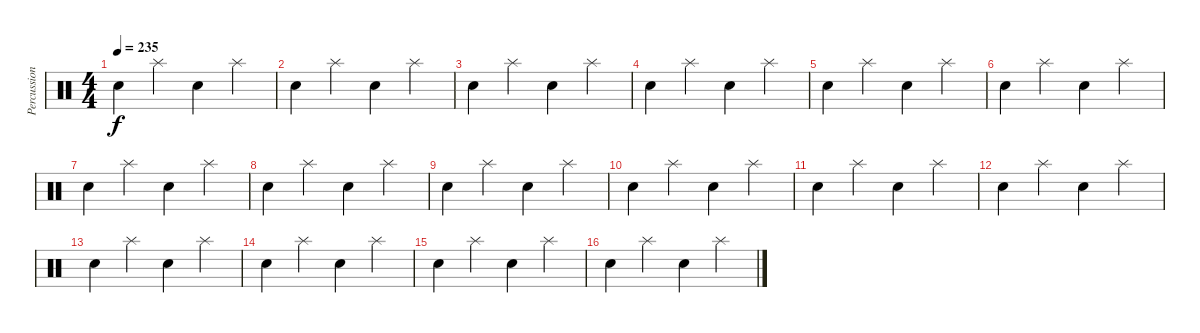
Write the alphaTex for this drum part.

\track ("Percussion" "Percussion") {instrument percussion}
\staff {score}
\articulation defaults
\ts (4 4)
\tempo 235
\clef neutral
\ks c "Snare (hit) 2".4{dy f} "Splash (hit)".4 "Snare (hit) 2".4 "Splash (hit)".4
|
"Snare (hit) 2".4 "Splash (hit)".4 "Snare (hit) 2".4 "Splash (hit)".4 |
"Snare (hit) 2".4 "Splash (hit)".4 "Snare (hit) 2".4 "Splash (hit)".4 |
"Snare (hit) 2".4 "Splash (hit)".4 "Snare (hit) 2".4 "Splash (hit)".4 |
"Snare (hit) 2".4 "Splash (hit)".4 "Snare (hit) 2".4 "Splash (hit)".4 |
"Snare (hit) 2".4 "Splash (hit)".4 "Snare (hit) 2".4 "Splash (hit)".4 |
"Snare (hit) 2".4 "Splash (hit)".4 "Snare (hit) 2".4 "Splash (hit)".4 |
"Snare (hit) 2".4 "Splash (hit)".4 "Snare (hit) 2".4 "Splash (hit)".4 |
"Snare (hit) 2".4 "Splash (hit)".4 "Snare (hit) 2".4 "Splash (hit)".4 |
"Snare (hit) 2".4 "Splash (hit)".4 "Snare (hit) 2".4 "Splash (hit)".4 |
"Snare (hit) 2".4 "Splash (hit)".4 "Snare (hit) 2".4 "Splash (hit)".4 |
"Snare (hit) 2".4 "Splash (hit)".4 "Snare (hit) 2".4 "Splash (hit)".4 |
"Snare (hit) 2".4 "Splash (hit)".4 "Snare (hit) 2".4 "Splash (hit)".4 |
"Snare (hit) 2".4 "Splash (hit)".4 "Snare (hit) 2".4 "Splash (hit)".4 |
"Snare (hit) 2".4 "Splash (hit)".4 "Snare (hit) 2".4 "Splash (hit)".4 |
"Snare (hit) 2".4 "Splash (hit)".4 "Snare (hit) 2".4 "Splash (hit)".4
